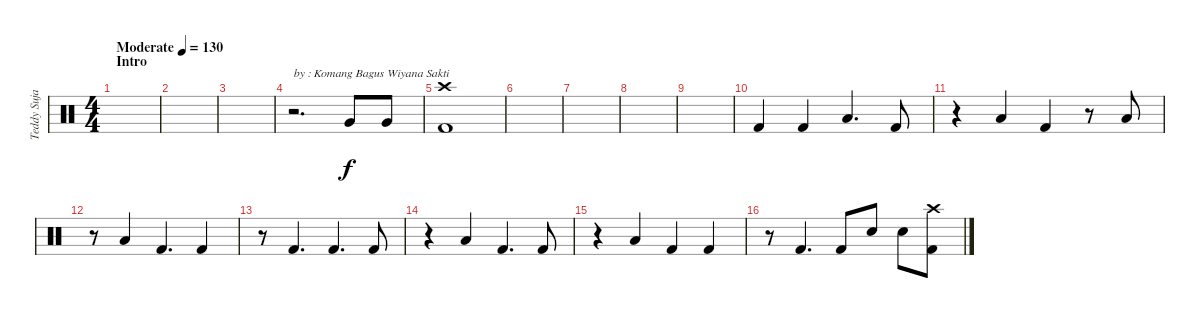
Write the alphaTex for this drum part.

\track ("Teddy Sujaya" "Teddy Suja") {instrument percussion}
\staff {score}
\articulation defaults
\ts (4 4)
\section ("" "Intro")
\tempo (130 "Moderate")
\clef neutral
\ks c
|
|
|
r.2{d txt "by : Komang Bagus Wiyana Sakti"} "Very Low Tom (hit)".8 "Very Low Tom (hit)".8 |
("Crash high (hit)" "Kick (hit) 2").1 |
|
|
|
|
"Kick (hit) 2".4 "Kick (hit) 2".4 "Low Tom (hit)".4{d} "Kick (hit) 2".8 |
r.4 "Low Tom (hit)".4 "Kick (hit) 2".4 r.8 "Low Tom (hit)".8 |
r.8 "Low Tom (hit)".4 "Kick (hit) 2".4{d} "Kick (hit) 2".4 |
r.8 "Kick (hit) 2".4{d} "Kick (hit) 2".4{d} "Kick (hit) 2".8 |
r.4 "Low Tom (hit)".4 "Kick (hit) 2".4{d} "Kick (hit) 2".8 |
r.4 "Low Tom (hit)".4 "Kick (hit) 2".4 "Kick (hit) 2".4 |
r.8 "Kick (hit) 2".4{d} "Kick (hit) 2".8 "Electric Snare (hit)".8 "Electric Snare (hit)".8 ("Crash high (hit)" "Kick (hit) 2").8
